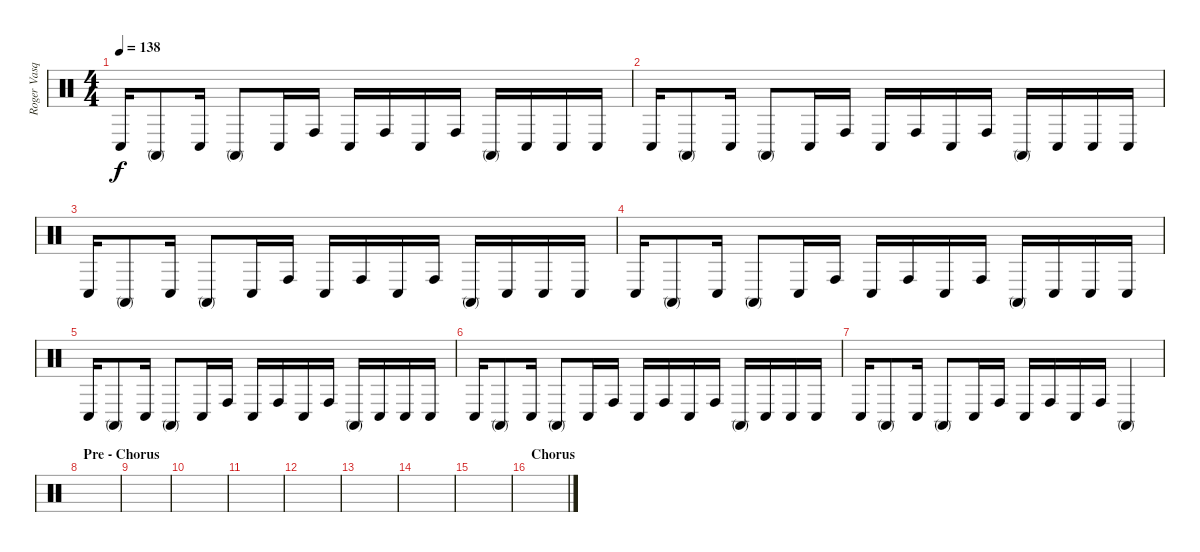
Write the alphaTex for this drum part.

\track ("Roger Vasquez - Percussion" "Roger Vasq") {instrument percussion}
\staff {score}
\articulation defaults
\ts (4 4)
\tempo 138
\clef neutral
\ks c "Conga low (hit)".16{dy f} "Conga high (mute)".8 "Conga low (hit)".16 "Conga high (mute)".8 "Conga low (hit)".16 "Conga high (hit)".16 "Conga low (hit)".16 "Conga high (hit)".16 "Conga low (hit)".16 "Conga high (hit)".16 "Conga high (mute)".16 "Conga low (hit)".16 "Conga low (hit)".16 "Conga low (hit)".16
|
"Conga low (hit)".16 "Conga high (mute)".8 "Conga low (hit)".16 "Conga high (mute)".8 "Conga low (hit)".16 "Conga high (hit)".16 "Conga low (hit)".16 "Conga high (hit)".16 "Conga low (hit)".16 "Conga high (hit)".16 "Conga high (mute)".16 "Conga low (hit)".16 "Conga low (hit)".16 "Conga low (hit)".16 |
"Conga low (hit)".16 "Conga high (mute)".8 "Conga low (hit)".16 "Conga high (mute)".8 "Conga low (hit)".16 "Conga high (hit)".16 "Conga low (hit)".16 "Conga high (hit)".16 "Conga low (hit)".16 "Conga high (hit)".16 "Conga high (mute)".16 "Conga low (hit)".16 "Conga low (hit)".16 "Conga low (hit)".16 |
"Conga low (hit)".16 "Conga high (mute)".8 "Conga low (hit)".16 "Conga high (mute)".8 "Conga low (hit)".16 "Conga high (hit)".16 "Conga low (hit)".16 "Conga high (hit)".16 "Conga low (hit)".16 "Conga high (hit)".16 "Conga high (mute)".16 "Conga low (hit)".16 "Conga low (hit)".16 "Conga low (hit)".16 |
"Conga low (hit)".16 "Conga high (mute)".8 "Conga low (hit)".16 "Conga high (mute)".8 "Conga low (hit)".16 "Conga high (hit)".16 "Conga low (hit)".16 "Conga high (hit)".16 "Conga low (hit)".16 "Conga high (hit)".16 "Conga high (mute)".16 "Conga low (hit)".16 "Conga low (hit)".16 "Conga low (hit)".16 |
"Conga low (hit)".16 "Conga high (mute)".8 "Conga low (hit)".16 "Conga high (mute)".8 "Conga low (hit)".16 "Conga high (hit)".16 "Conga low (hit)".16 "Conga high (hit)".16 "Conga low (hit)".16 "Conga high (hit)".16 "Conga high (mute)".16 "Conga low (hit)".16 "Conga low (hit)".16 "Conga low (hit)".16 |
"Conga low (hit)".16 "Conga high (mute)".8 "Conga low (hit)".16 "Conga high (mute)".8 "Conga low (hit)".16 "Conga high (hit)".16 "Conga low (hit)".16 "Conga high (hit)".16 "Conga low (hit)".16 "Conga high (hit)".16 "Conga high (mute)".4 |
\section ("" "Pre - Chorus")
|
|
|
|
|
|
|
|
\section ("" "Chorus")
